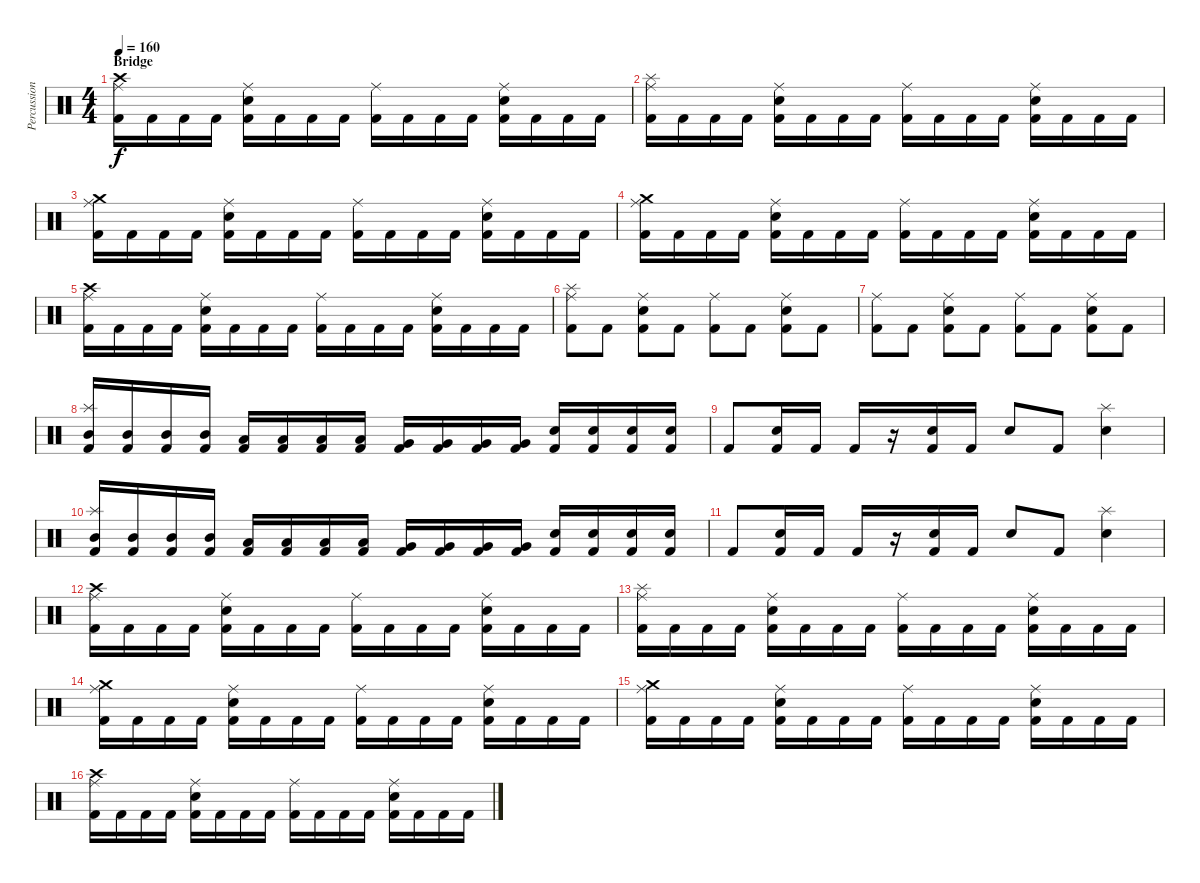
\track ("Percussions" "Percussion") {instrument percussion}
\staff {score}
\articulation defaults
\ts (4 4)
\section ("" "Bridge")
\tempo 160
\clef neutral
\ks c
("Crash high (hit)" "Ride (middle)" "Kick (hit) 2").16{dy f} "Kick (hit) 2".16 "Kick (hit) 2".16 "Kick (hit) 2".16 ("Electric Snare (hit)" "Ride (middle)" "Kick (hit) 2").16 "Kick (hit) 2".16 "Kick (hit) 2".16 "Kick (hit) 2".16 ("Ride (middle)" "Kick (hit) 2").16 "Kick (hit) 2".16 "Kick (hit) 2".16 "Kick (hit) 2".16 ("Electric Snare (hit)" "Ride (middle)" "Kick (hit) 2").16 "Kick (hit) 2".16 "Kick (hit) 2".16 "Kick (hit) 2".16 |
("Splash (hit)" "Ride (middle)" "Kick (hit) 2").16 "Kick (hit) 2".16 "Kick (hit) 2".16 "Kick (hit) 2".16 ("Electric Snare (hit)" "Ride (middle)" "Kick (hit) 2").16 "Kick (hit) 2".16 "Kick (hit) 2".16 "Kick (hit) 2".16 ("Ride (middle)" "Kick (hit) 2").16 "Kick (hit) 2".16 "Kick (hit) 2".16 "Kick (hit) 2".16 ("Electric Snare (hit)" "Ride (middle)" "Kick (hit) 2").16 "Kick (hit) 2".16 "Kick (hit) 2".16 "Kick (hit) 2".16 |
("Crash medium (hit)" "Ride (middle)" "Kick (hit) 2").16 "Kick (hit) 2".16 "Kick (hit) 2".16 "Kick (hit) 2".16 ("Electric Snare (hit)" "Ride (middle)" "Kick (hit) 2").16 "Kick (hit) 2".16 "Kick (hit) 2".16 "Kick (hit) 2".16 ("Ride (middle)" "Kick (hit) 2").16 "Kick (hit) 2".16 "Kick (hit) 2".16 "Kick (hit) 2".16 ("Electric Snare (hit)" "Ride (middle)" "Kick (hit) 2").16 "Kick (hit) 2".16 "Kick (hit) 2".16 "Kick (hit) 2".16 |
("Crash medium (hit)" "Ride (middle)" "Kick (hit) 2").16 "Kick (hit) 2".16 "Kick (hit) 2".16 "Kick (hit) 2".16 ("Electric Snare (hit)" "Ride (middle)" "Kick (hit) 2").16 "Kick (hit) 2".16 "Kick (hit) 2".16 "Kick (hit) 2".16 ("Ride (middle)" "Kick (hit) 2").16 "Kick (hit) 2".16 "Kick (hit) 2".16 "Kick (hit) 2".16 ("Electric Snare (hit)" "Ride (middle)" "Kick (hit) 2").16 "Kick (hit) 2".16 "Kick (hit) 2".16 "Kick (hit) 2".16 |
("Crash high (hit)" "Ride (middle)" "Kick (hit) 2").16 "Kick (hit) 2".16 "Kick (hit) 2".16 "Kick (hit) 2".16 ("Electric Snare (hit)" "Ride (middle)" "Kick (hit) 2").16 "Kick (hit) 2".16 "Kick (hit) 2".16 "Kick (hit) 2".16 ("Ride (middle)" "Kick (hit) 2").16 "Kick (hit) 2".16 "Kick (hit) 2".16 "Kick (hit) 2".16 ("Electric Snare (hit)" "Ride (middle)" "Kick (hit) 2").16 "Kick (hit) 2".16 "Kick (hit) 2".16 "Kick (hit) 2".16 |
("Splash (hit)" "Ride (middle)" "Kick (hit) 2").8 "Kick (hit) 2".8 ("Electric Snare (hit)" "Ride (middle)" "Kick (hit) 2").8 "Kick (hit) 2".8 ("Ride (middle)" "Kick (hit) 2").8 "Kick (hit) 2".8 ("Electric Snare (hit)" "Ride (middle)" "Kick (hit) 2").8 "Kick (hit) 2".8 |
("Ride (middle)" "Kick (hit) 2").8 "Kick (hit) 2".8 ("Electric Snare (hit)" "Ride (middle)" "Kick (hit) 2").8 "Kick (hit) 2".8 ("Ride (middle)" "Kick (hit) 2").8 "Kick (hit) 2".8 ("Electric Snare (hit)" "Ride (middle)" "Kick (hit) 2").8 "Kick (hit) 2".8 |
("Splash (hit)" "Mid Tom (hit)" "Kick (hit) 2").16 ("Mid Tom (hit)" "Kick (hit) 2").16 ("Mid Tom (hit)" "Kick (hit) 2").16 ("Mid Tom (hit)" "Kick (hit) 2").16 ("Low Tom (hit)" "Kick (hit) 2").16 ("Low Tom (hit)" "Kick (hit) 2").16 ("Low Tom (hit)" "Kick (hit) 2").16 ("Low Tom (hit)" "Kick (hit) 2").16 ("Very Low Tom (hit)" "Kick (hit) 2").16 ("Very Low Tom (hit)" "Kick (hit) 2").16 ("Very Low Tom (hit)" "Kick (hit) 2").16 ("Very Low Tom (hit)" "Kick (hit) 2").16 ("Electric Snare (hit)" "Kick (hit) 2").16 ("Electric Snare (hit)" "Kick (hit) 2").16 ("Electric Snare (hit)" "Kick (hit) 2").16 ("Electric Snare (hit)" "Kick (hit) 2").16 |
"Kick (hit) 2".8 ("Electric Snare (hit)" "Kick (hit) 2").16 "Kick (hit) 2".16 "Kick (hit) 2".16 r.16 ("Electric Snare (hit)" "Kick (hit) 2").16 "Kick (hit) 2".16 "Electric Snare (hit)".8 "Kick (hit) 2".8 ("Splash (hit)" "Electric Snare (hit)").4 |
("Splash (hit)" "Mid Tom (hit)" "Kick (hit) 2").16 ("Mid Tom (hit)" "Kick (hit) 2").16 ("Mid Tom (hit)" "Kick (hit) 2").16 ("Mid Tom (hit)" "Kick (hit) 2").16 ("Low Tom (hit)" "Kick (hit) 2").16 ("Low Tom (hit)" "Kick (hit) 2").16 ("Low Tom (hit)" "Kick (hit) 2").16 ("Low Tom (hit)" "Kick (hit) 2").16 ("Very Low Tom (hit)" "Kick (hit) 2").16 ("Very Low Tom (hit)" "Kick (hit) 2").16 ("Very Low Tom (hit)" "Kick (hit) 2").16 ("Very Low Tom (hit)" "Kick (hit) 2").16 ("Electric Snare (hit)" "Kick (hit) 2").16 ("Electric Snare (hit)" "Kick (hit) 2").16 ("Electric Snare (hit)" "Kick (hit) 2").16 ("Electric Snare (hit)" "Kick (hit) 2").16 |
"Kick (hit) 2".8 ("Electric Snare (hit)" "Kick (hit) 2").16 "Kick (hit) 2".16 "Kick (hit) 2".16 r.16 ("Electric Snare (hit)" "Kick (hit) 2").16 "Kick (hit) 2".16 "Electric Snare (hit)".8 "Kick (hit) 2".8 ("Splash (hit)" "Electric Snare (hit)").4 |
("Crash high (hit)" "Ride (middle)" "Kick (hit) 2").16 "Kick (hit) 2".16 "Kick (hit) 2".16 "Kick (hit) 2".16 ("Electric Snare (hit)" "Ride (middle)" "Kick (hit) 2").16 "Kick (hit) 2".16 "Kick (hit) 2".16 "Kick (hit) 2".16 ("Ride (middle)" "Kick (hit) 2").16 "Kick (hit) 2".16 "Kick (hit) 2".16 "Kick (hit) 2".16 ("Electric Snare (hit)" "Ride (middle)" "Kick (hit) 2").16 "Kick (hit) 2".16 "Kick (hit) 2".16 "Kick (hit) 2".16 |
("Splash (hit)" "Ride (middle)" "Kick (hit) 2").16 "Kick (hit) 2".16 "Kick (hit) 2".16 "Kick (hit) 2".16 ("Electric Snare (hit)" "Ride (middle)" "Kick (hit) 2").16 "Kick (hit) 2".16 "Kick (hit) 2".16 "Kick (hit) 2".16 ("Ride (middle)" "Kick (hit) 2").16 "Kick (hit) 2".16 "Kick (hit) 2".16 "Kick (hit) 2".16 ("Electric Snare (hit)" "Ride (middle)" "Kick (hit) 2").16 "Kick (hit) 2".16 "Kick (hit) 2".16 "Kick (hit) 2".16 |
("Crash medium (hit)" "Ride (middle)" "Kick (hit) 2").16 "Kick (hit) 2".16 "Kick (hit) 2".16 "Kick (hit) 2".16 ("Electric Snare (hit)" "Ride (middle)" "Kick (hit) 2").16 "Kick (hit) 2".16 "Kick (hit) 2".16 "Kick (hit) 2".16 ("Ride (middle)" "Kick (hit) 2").16 "Kick (hit) 2".16 "Kick (hit) 2".16 "Kick (hit) 2".16 ("Electric Snare (hit)" "Ride (middle)" "Kick (hit) 2").16 "Kick (hit) 2".16 "Kick (hit) 2".16 "Kick (hit) 2".16 |
("Crash medium (hit)" "Ride (middle)" "Kick (hit) 2").16 "Kick (hit) 2".16 "Kick (hit) 2".16 "Kick (hit) 2".16 ("Electric Snare (hit)" "Ride (middle)" "Kick (hit) 2").16 "Kick (hit) 2".16 "Kick (hit) 2".16 "Kick (hit) 2".16 ("Ride (middle)" "Kick (hit) 2").16 "Kick (hit) 2".16 "Kick (hit) 2".16 "Kick (hit) 2".16 ("Electric Snare (hit)" "Ride (middle)" "Kick (hit) 2").16 "Kick (hit) 2".16 "Kick (hit) 2".16 "Kick (hit) 2".16 |
("Crash high (hit)" "Ride (middle)" "Kick (hit) 2").16 "Kick (hit) 2".16 "Kick (hit) 2".16 "Kick (hit) 2".16 ("Electric Snare (hit)" "Ride (middle)" "Kick (hit) 2").16 "Kick (hit) 2".16 "Kick (hit) 2".16 "Kick (hit) 2".16 ("Ride (middle)" "Kick (hit) 2").16 "Kick (hit) 2".16 "Kick (hit) 2".16 "Kick (hit) 2".16 ("Electric Snare (hit)" "Ride (middle)" "Kick (hit) 2").16 "Kick (hit) 2".16 "Kick (hit) 2".16 "Kick (hit) 2".16
